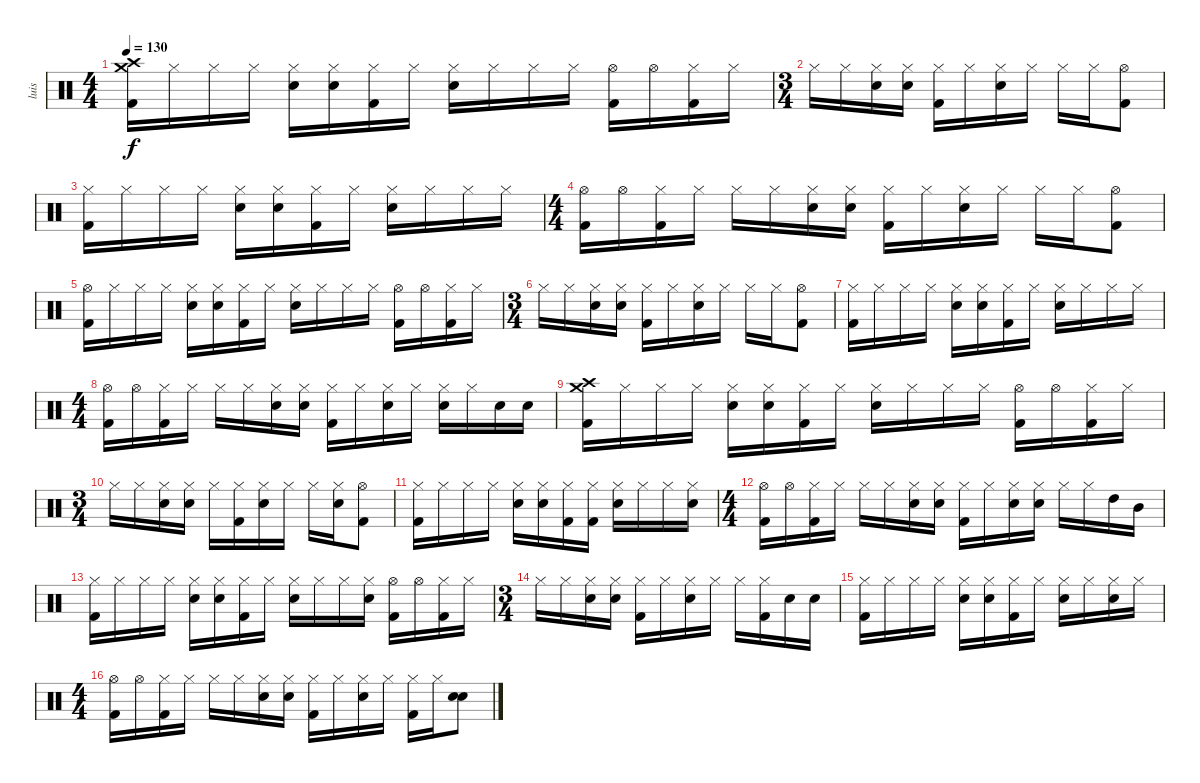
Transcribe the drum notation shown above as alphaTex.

\track ("luis" "luis") {instrument percussion}
\staff {score}
\articulation defaults
\ts (4 4)
\tempo 130
\clef neutral
\ks c
("Crash medium (hit)" "Crash high (hit)" "Kick (hit) 2").16{dy f} "Hi-Hat (closed)".16 "Hi-Hat (closed)".16 "Hi-Hat (closed)".16 ("Hi-Hat (closed)" "Snare (hit) 2").16 ("Hi-Hat (closed)" "Snare (hit) 2").16 ("Hi-Hat (closed)" "Kick (hit) 2").16 "Hi-Hat (closed)".16 ("Hi-Hat (closed)" "Snare (hit) 2").16 "Hi-Hat (closed)".16 "Hi-Hat (closed)".16 "Hi-Hat (closed)".16 ("Hi-Hat (open)" "Kick (hit) 2").16 "Hi-Hat (open)".16 ("Hi-Hat (closed)" "Kick (hit) 2").16 "Hi-Hat (closed)".16 |
\ts (3 4)
"Hi-Hat (closed)".16 "Hi-Hat (closed)".16 ("Hi-Hat (closed)" "Snare (hit) 2").16 ("Hi-Hat (closed)" "Snare (hit) 2").16 ("Hi-Hat (closed)" "Kick (hit) 2").16 "Hi-Hat (closed)".16 ("Hi-Hat (closed)" "Snare (hit) 2").16 "Hi-Hat (closed)".16 "Hi-Hat (closed)".16 "Hi-Hat (closed)".16 ("Hi-Hat (open)" "Kick (hit) 2").8 |
("Hi-Hat (closed)" "Kick (hit) 2").16 "Hi-Hat (closed)".16 "Hi-Hat (closed)".16 "Hi-Hat (closed)".16 ("Hi-Hat (closed)" "Snare (hit) 2").16 ("Hi-Hat (closed)" "Snare (hit) 2").16 ("Hi-Hat (closed)" "Kick (hit) 2").16 "Hi-Hat (closed)".16 ("Hi-Hat (closed)" "Snare (hit) 2").16 "Hi-Hat (closed)".16 "Hi-Hat (closed)".16 "Hi-Hat (closed)".16 |
\ts (4 4)
("Hi-Hat (open)" "Kick (hit) 2").16 "Hi-Hat (open)".16 ("Hi-Hat (closed)" "Kick (hit) 2").16 "Hi-Hat (closed)".16 "Hi-Hat (closed)".16 "Hi-Hat (closed)".16 ("Hi-Hat (closed)" "Snare (hit) 2").16 ("Hi-Hat (closed)" "Snare (hit) 2").16 ("Hi-Hat (closed)" "Kick (hit) 2").16 "Hi-Hat (closed)".16 ("Hi-Hat (closed)" "Snare (hit) 2").16 "Hi-Hat (closed)".16 "Hi-Hat (closed)".16 "Hi-Hat (closed)".16 ("Hi-Hat (open)" "Kick (hit) 2").8 |
("Hi-Hat (open)" "Kick (hit) 2").16 "Hi-Hat (closed)".16 "Hi-Hat (closed)".16 "Hi-Hat (closed)".16 ("Hi-Hat (closed)" "Snare (hit) 2").16 ("Hi-Hat (closed)" "Snare (hit) 2").16 ("Hi-Hat (closed)" "Kick (hit) 2").16 "Hi-Hat (closed)".16 ("Hi-Hat (closed)" "Snare (hit) 2").16 "Hi-Hat (closed)".16 "Hi-Hat (closed)".16 "Hi-Hat (closed)".16 ("Hi-Hat (open)" "Kick (hit) 2").16 "Hi-Hat (open)".16 ("Hi-Hat (closed)" "Kick (hit) 2").16 "Hi-Hat (closed)".16 |
\ts (3 4)
"Hi-Hat (closed)".16 "Hi-Hat (closed)".16 ("Hi-Hat (closed)" "Snare (hit) 2").16 ("Hi-Hat (closed)" "Snare (hit) 2").16 ("Hi-Hat (closed)" "Kick (hit) 2").16 "Hi-Hat (closed)".16 ("Hi-Hat (closed)" "Snare (hit) 2").16 "Hi-Hat (closed)".16 "Hi-Hat (closed)".16 "Hi-Hat (closed)".16 ("Hi-Hat (open)" "Kick (hit) 2").8 |
("Hi-Hat (closed)" "Kick (hit) 2").16 "Hi-Hat (closed)".16 "Hi-Hat (closed)".16 "Hi-Hat (closed)".16 ("Hi-Hat (closed)" "Snare (hit) 2").16 ("Hi-Hat (closed)" "Snare (hit) 2").16 ("Hi-Hat (closed)" "Kick (hit) 2").16 "Hi-Hat (closed)".16 ("Hi-Hat (closed)" "Snare (hit) 2").16 "Hi-Hat (closed)".16 "Hi-Hat (closed)".16 "Hi-Hat (closed)".16 |
\ts (4 4)
("Hi-Hat (open)" "Kick (hit) 2").16 "Hi-Hat (open)".16 ("Hi-Hat (closed)" "Kick (hit) 2").16 "Hi-Hat (closed)".16 "Hi-Hat (closed)".16 "Hi-Hat (closed)".16 ("Hi-Hat (closed)" "Snare (hit) 2").16 ("Hi-Hat (closed)" "Snare (hit) 2").16 ("Hi-Hat (closed)" "Kick (hit) 2").16 "Hi-Hat (closed)".16 ("Hi-Hat (closed)" "Snare (hit) 2").16 "Hi-Hat (closed)".16 ("Hi-Hat (closed)" "Snare (hit) 2").16 "Hi-Hat (closed)".16 "Snare (hit) 2".16 "Snare (hit) 2".16 |
("Crash medium (hit)" "Crash high (hit)" "Kick (hit) 2").16 "Hi-Hat (closed)".16 "Hi-Hat (closed)".16 "Hi-Hat (closed)".16 ("Hi-Hat (closed)" "Snare (hit) 2").16 ("Hi-Hat (closed)" "Snare (hit) 2").16 ("Hi-Hat (closed)" "Kick (hit) 2").16 "Hi-Hat (closed)".16 ("Hi-Hat (closed)" "Snare (hit) 2").16 "Hi-Hat (closed)".16 "Hi-Hat (closed)".16 "Hi-Hat (closed)".16 ("Hi-Hat (open)" "Kick (hit) 2").16 "Hi-Hat (open)".16 ("Hi-Hat (closed)" "Kick (hit) 2").16 "Hi-Hat (closed)".16 |
\ts (3 4)
"Hi-Hat (closed)".16 "Hi-Hat (closed)".16 ("Hi-Hat (closed)" "Snare (hit) 2").16 ("Hi-Hat (closed)" "Snare (hit) 2").16 "Hi-Hat (closed)".16 ("Hi-Hat (closed)" "Kick (hit) 2").16 ("Hi-Hat (closed)" "Snare (hit) 2").16 "Hi-Hat (closed)".16 "Hi-Hat (closed)".16 ("Hi-Hat (closed)" "Snare (hit) 2").16 ("Hi-Hat (open)" "Kick (hit) 2").8 |
("Hi-Hat (closed)" "Kick (hit) 2").16 "Hi-Hat (closed)".16 "Hi-Hat (closed)".16 "Hi-Hat (closed)".16 ("Hi-Hat (closed)" "Snare (hit) 2").16 ("Hi-Hat (closed)" "Snare (hit) 2").16 ("Hi-Hat (closed)" "Kick (hit) 2").16 ("Hi-Hat (closed)" "Kick (hit) 2").16 ("Hi-Hat (closed)" "Snare (hit) 2").16 "Hi-Hat (closed)".16 "Hi-Hat (closed)".16 ("Hi-Hat (closed)" "Snare (hit) 2").16 |
\ts (4 4)
("Hi-Hat (open)" "Kick (hit) 2").16 "Hi-Hat (open)".16 ("Hi-Hat (closed)" "Kick (hit) 2").16 "Hi-Hat (closed)".16 "Hi-Hat (closed)".16 "Hi-Hat (closed)".16 ("Hi-Hat (closed)" "Snare (hit) 2").16 ("Hi-Hat (closed)" "Snare (hit) 2").16 ("Hi-Hat (closed)" "Kick (hit) 2").16 "Hi-Hat (closed)".16 ("Hi-Hat (closed)" "Snare (hit) 2").16 ("Hi-Hat (closed)" "Snare (hit) 2").16 "Hi-Hat (closed)".16 "Hi-Hat (closed)".16 "High Tom (hit)".16 "Mid Tom (hit)".16 |
("Hi-Hat (closed)" "Kick (hit) 2").16 "Hi-Hat (closed)".16 "Hi-Hat (closed)".16 "Hi-Hat (closed)".16 ("Hi-Hat (closed)" "Snare (hit) 2").16 ("Hi-Hat (closed)" "Snare (hit) 2").16 ("Hi-Hat (closed)" "Kick (hit) 2").16 "Hi-Hat (closed)".16 ("Hi-Hat (closed)" "Snare (hit) 2").16 "Hi-Hat (closed)".16 "Hi-Hat (closed)".16 ("Hi-Hat (closed)" "Snare (hit) 2").16 ("Hi-Hat (open)" "Kick (hit) 2").16 "Hi-Hat (open)".16 ("Hi-Hat (closed)" "Kick (hit) 2").16 "Hi-Hat (closed)".16 |
\ts (3 4)
"Hi-Hat (closed)".16 "Hi-Hat (closed)".16 ("Hi-Hat (closed)" "Snare (hit) 2").16 ("Hi-Hat (closed)" "Snare (hit) 2").16 ("Hi-Hat (closed)" "Kick (hit) 2").16 "Hi-Hat (closed)".16 ("Hi-Hat (closed)" "Snare (hit) 2").16 "Hi-Hat (closed)".16 "Hi-Hat (closed)".16 ("Hi-Hat (closed)" "Kick (hit) 2").16 "Snare (hit) 2".16 "Snare (hit) 2".16 |
("Hi-Hat (closed)" "Kick (hit) 2").16 "Hi-Hat (closed)".16 "Hi-Hat (closed)".16 "Hi-Hat (closed)".16 ("Hi-Hat (closed)" "Snare (hit) 2").16 ("Hi-Hat (closed)" "Snare (hit) 2").16 ("Hi-Hat (closed)" "Kick (hit) 2").16 "Hi-Hat (closed)".16 ("Hi-Hat (closed)" "Snare (hit) 2").16 "Hi-Hat (closed)".16 ("Hi-Hat (closed)" "Snare (hit) 2").16 "Hi-Hat (closed)".16 |
\ts (4 4)
("Hi-Hat (open)" "Kick (hit) 2").16 "Hi-Hat (open)".16 ("Hi-Hat (closed)" "Kick (hit) 2").16 "Hi-Hat (closed)".16 "Hi-Hat (closed)".16 "Hi-Hat (closed)".16 ("Hi-Hat (closed)" "Snare (hit) 2").16 ("Hi-Hat (closed)" "Snare (hit) 2").16 ("Hi-Hat (closed)" "Kick (hit) 2").16 "Hi-Hat (closed)".16 ("Hi-Hat (closed)" "Snare (hit) 2").16 "Hi-Hat (closed)".16 ("Hi-Hat (closed)" "Kick (hit) 2").16 "Hi-Hat (closed)".16 ("Snare (hit) 2" "Snare (hit) 2").8
